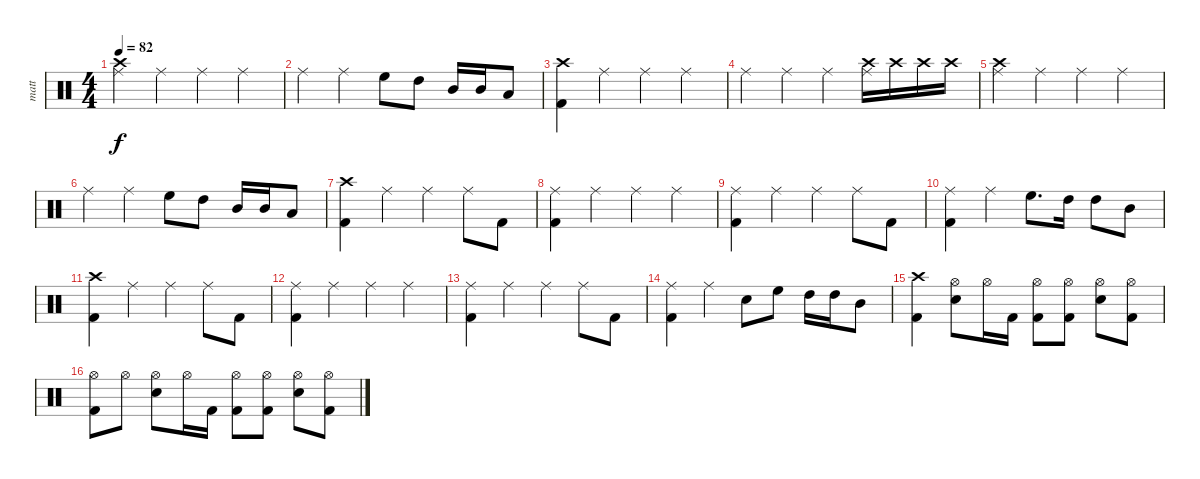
\track ("matt" "matt") {instrument percussion}
\staff {score}
\articulation defaults
\ts (4 4)
\tempo 82
\clef neutral
\ks c
("Crash high (hit)" "Ride (middle)").4{dy f} "Ride (middle)".4 "Ride (middle)".4 "Ride (middle)".4 |
"Ride (middle)".4 "Ride (middle)".4 "High Floor Tom (hit)".8 "High Tom (hit)".8 "Mid Tom (hit)".16 "Mid Tom (hit)".16 "Low Tom (hit)".8 |
("Crash high (hit)" "Kick (hit) 2").4 "Ride (middle)".4 "Ride (middle)".4 "Ride (middle)".4 |
"Ride (middle)".4 "Ride (middle)".4 "Ride (middle)".4 ("Crash high (hit)" "Ride (middle)").16 "Crash high (hit)".16 "Crash high (hit)".16 "Crash high (hit)".16 |
("Crash high (hit)" "Ride (middle)").4 "Ride (middle)".4 "Ride (middle)".4 "Ride (middle)".4 |
"Ride (middle)".4 "Ride (middle)".4 "High Floor Tom (hit)".8 "High Tom (hit)".8 "Mid Tom (hit)".16 "Mid Tom (hit)".16 "Low Tom (hit)".8 |
("Crash high (hit)" "Kick (hit) 2").4 "Ride (middle)".4 "Ride (middle)".4 "Ride (middle)".8 "Kick (hit) 2".8 |
("Ride (middle)" "Kick (hit) 2").4 "Ride (middle)".4 "Ride (middle)".4 "Ride (middle)".4 |
("Ride (middle)" "Kick (hit) 2").4 "Ride (middle)".4 "Ride (middle)".4 "Ride (middle)".8 "Kick (hit) 2".8 |
("Ride (middle)" "Kick (hit) 2").4 "Ride (middle)".4 "High Floor Tom (hit)".8{d} "High Tom (hit)".16 "High Tom (hit)".8 "Mid Tom (hit)".8 |
("Crash high (hit)" "Kick (hit) 2").4 "Ride (middle)".4 "Ride (middle)".4 "Ride (middle)".8 "Kick (hit) 2".8 |
("Ride (middle)" "Kick (hit) 2").4 "Ride (middle)".4 "Ride (middle)".4 "Ride (middle)".4 |
("Ride (middle)" "Kick (hit) 2").4 "Ride (middle)".4 "Ride (middle)".4 "Ride (middle)".8 "Kick (hit) 2".8 |
("Ride (middle)" "Kick (hit) 2").4 "Ride (middle)".4 "Electric Snare (hit)".8 "High Floor Tom (hit)".8 "High Tom (hit)".16 "High Tom (hit)".16 "Mid Tom (hit)".8 |
("Crash high (hit)" "Kick (hit) 2").4 ("Hi-Hat (open)" "Electric Snare (hit)").8 "Hi-Hat (open)".16 "Kick (hit) 2".16 ("Hi-Hat (open)" "Kick (hit) 2").8 ("Hi-Hat (open)" "Kick (hit) 2").8 ("Hi-Hat (open)" "Electric Snare (hit)").8 ("Hi-Hat (open)" "Kick (hit) 2").8 |
("Hi-Hat (open)" "Kick (hit) 2").8 "Hi-Hat (open)".8 ("Hi-Hat (open)" "Electric Snare (hit)").8 "Hi-Hat (open)".16 "Kick (hit) 2".16 ("Hi-Hat (open)" "Kick (hit) 2").8 ("Hi-Hat (open)" "Kick (hit) 2").8 ("Hi-Hat (open)" "Electric Snare (hit)").8 ("Hi-Hat (open)" "Kick (hit) 2").8
